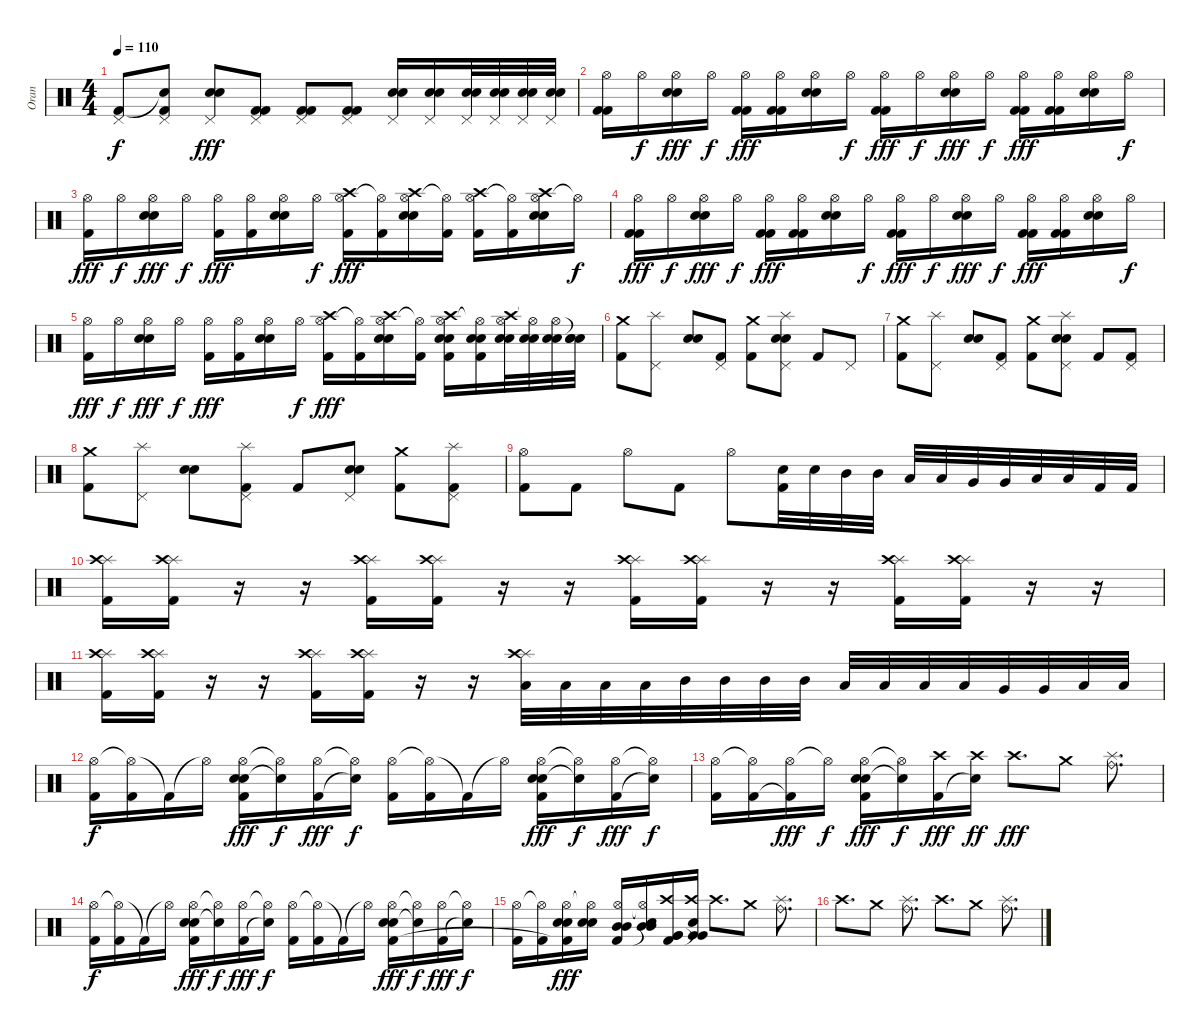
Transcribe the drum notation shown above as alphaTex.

\track ("Oran" "Oran") {instrument percussion}
\staff {score}
\articulation defaults
\ts (4 4)
\tempo 110
\clef neutral
\ks c
("Pedal Hi-Hat (hit)" "Kick (hit) 2").8{dy f} ("Pedal Hi-Hat (hit)" "Snare (hit)"{t} "Kick (hit) 2").8 ("Pedal Hi-Hat (hit)" "Snare (hit) 2" "Electric Snare (hit)").8{dy fff} ("Pedal Hi-Hat (hit)" "Kick (hit) 2" "Kick (hit) 2").8 ("Pedal Hi-Hat (hit)" "Kick (hit) 2" "Kick (hit) 2").8 ("Pedal Hi-Hat (hit)" "Kick (hit) 2" "Kick (hit) 2").8 ("Pedal Hi-Hat (hit)" "Electric Snare (hit)" "Snare (hit) 2").16 ("Pedal Hi-Hat (hit)" "Electric Snare (hit)" "Snare (hit) 2").16 ("Pedal Hi-Hat (hit)" "Snare (hit) 2" "Electric Snare (hit)").32 ("Pedal Hi-Hat (hit)" "Snare (hit) 2" "Electric Snare (hit)").32 ("Pedal Hi-Hat (hit)" "Snare (hit) 2" "Electric Snare (hit)").32 ("Pedal Hi-Hat (hit)" "Snare (hit) 2" "Electric Snare (hit)").32 |
("Hi-Hat (open)" "Kick (hit) 2" "Kick (hit) 2").16 "Hi-Hat (open)".16{dy f} ("Hi-Hat (open)" "Snare (hit) 2" "Electric Snare (hit)").16{dy fff} "Hi-Hat (open)".16{dy f} ("Hi-Hat (open)" "Kick (hit) 2" "Kick (hit) 2").16{dy fff} ("Hi-Hat (open)" "Kick (hit) 2" "Kick (hit) 2").16 ("Hi-Hat (open)" "Snare (hit) 2" "Electric Snare (hit)").16 "Hi-Hat (open)".16{dy f} ("Hi-Hat (open)" "Kick (hit) 2" "Kick (hit) 2").16{dy fff} "Hi-Hat (open)".16{dy f} ("Hi-Hat (open)" "Snare (hit) 2" "Electric Snare (hit)").16{dy fff} "Hi-Hat (open)".16{dy f} ("Hi-Hat (open)" "Kick (hit) 2" "Kick (hit) 2").16{dy fff} ("Hi-Hat (open)" "Kick (hit) 2" "Kick (hit) 2").16 ("Hi-Hat (open)" "Snare (hit) 2" "Electric Snare (hit)").16 "Hi-Hat (open)".16{dy f} |
("Hi-Hat (open)" "Kick (hit) 2").16{dy fff} "Hi-Hat (open)".16{dy f} ("Hi-Hat (open)" "Snare (hit) 2" "Electric Snare (hit)").16{dy fff} "Hi-Hat (open)".16{dy f} ("Hi-Hat (open)" "Kick (hit) 2").16{dy fff} ("Hi-Hat (open)" "Kick (hit) 2").16 ("Hi-Hat (open)" "Snare (hit) 2" "Electric Snare (hit)").16 "Hi-Hat (open)".16{dy f} ("Hi-Hat (open)" "Crash high (hit)" "Kick (hit) 2").16{dy fff} ("Hi-Hat (open)"{t} "Kick (hit) 2").16 ("Hi-Hat (open)" "Snare (hit) 2" "Electric Snare (hit)" "Crash high (hit)").16 ("Hi-Hat (open)"{t} "Kick (hit) 2").16 ("Hi-Hat (open)" "Crash high (hit)" "Kick (hit) 2").16 ("Hi-Hat (open)"{t} "Kick (hit) 2").16 ("Hi-Hat (open)" "Electric Snare (hit)" "Snare (hit) 2" "Crash high (hit)").16 "Hi-Hat (open)"{t}.16{dy f} |
("Hi-Hat (open)" "Kick (hit) 2" "Kick (hit) 2").16{dy fff} "Hi-Hat (open)".16{dy f} ("Hi-Hat (open)" "Snare (hit) 2" "Electric Snare (hit)").16{dy fff} "Hi-Hat (open)".16{dy f} ("Hi-Hat (open)" "Kick (hit) 2" "Kick (hit) 2").16{dy fff} ("Hi-Hat (open)" "Kick (hit) 2" "Kick (hit) 2").16 ("Hi-Hat (open)" "Snare (hit) 2" "Electric Snare (hit)").16 "Hi-Hat (open)".16{dy f} ("Hi-Hat (open)" "Kick (hit) 2" "Kick (hit) 2").16{dy fff} "Hi-Hat (open)".16{dy f} ("Hi-Hat (open)" "Snare (hit) 2" "Electric Snare (hit)").16{dy fff} "Hi-Hat (open)".16{dy f} ("Hi-Hat (open)" "Kick (hit) 2" "Kick (hit) 2").16{dy fff} ("Hi-Hat (open)" "Kick (hit) 2" "Kick (hit) 2").16 ("Hi-Hat (open)" "Snare (hit) 2" "Electric Snare (hit)").16 "Hi-Hat (open)".16{dy f} |
("Hi-Hat (open)" "Kick (hit) 2").16{dy fff} "Hi-Hat (open)".16{dy f} ("Hi-Hat (open)" "Snare (hit) 2" "Electric Snare (hit)").16{dy fff} "Hi-Hat (open)".16{dy f} ("Hi-Hat (open)" "Kick (hit) 2").16{dy fff} ("Hi-Hat (open)" "Kick (hit) 2").16 ("Hi-Hat (open)" "Snare (hit) 2" "Electric Snare (hit)").16 "Hi-Hat (open)".16{dy f} ("Hi-Hat (open)" "Crash high (hit)" "Kick (hit) 2").16{dy fff} ("Hi-Hat (open)"{t} "Kick (hit) 2").16 ("Hi-Hat (open)" "Snare (hit) 2" "Electric Snare (hit)" "Crash high (hit)").16 ("Hi-Hat (open)"{t} "Kick (hit) 2").16 ("Hi-Hat (open)" "Crash high (hit)" "Electric Snare (hit)" "Kick (hit) 2" "Snare (hit) 2").16 ("Hi-Hat (open)"{t} "Snare (hit) 2" "Electric Snare (hit)" "Kick (hit) 2").16 ("Hi-Hat (open)" "Electric Snare (hit)" "Snare (hit) 2" "Crash high (hit)").32 ("Hi-Hat (open)"{t} "Snare (hit) 2" "Electric Snare (hit)").32 ("Hi-Hat (open)" "Snare (hit) 2" "Electric Snare (hit)").32 ("Snare (hit)"{t} "Snare (hit) 2" "Electric Snare (hit)").32 |
("Crash medium (hit)" "Kick (hit) 2").8 ("Splash (hit)" "Pedal Hi-Hat (hit)").8 ("Snare (hit) 2" "Electric Snare (hit)").8 ("Pedal Hi-Hat (hit)" "Kick (hit) 2").8 ("Crash medium (hit)" "Kick (hit) 2").8 ("Splash (hit)" "Pedal Hi-Hat (hit)" "Snare (hit) 2" "Electric Snare (hit)").8 "Kick (hit) 2".8 "Pedal Hi-Hat (hit)".8 |
("Crash medium (hit)" "Kick (hit) 2").8 ("Splash (hit)" "Pedal Hi-Hat (hit)").8 ("Snare (hit) 2" "Electric Snare (hit)").8 ("Pedal Hi-Hat (hit)" "Kick (hit) 2").8 ("Crash medium (hit)" "Kick (hit) 2").8 ("Splash (hit)" "Pedal Hi-Hat (hit)" "Snare (hit) 2" "Electric Snare (hit)").8 "Kick (hit) 2".8 ("Pedal Hi-Hat (hit)" "Kick (hit) 2").8 |
("Crash medium (hit)" "Kick (hit) 2").8 ("Splash (hit)" "Pedal Hi-Hat (hit)").8 ("Snare (hit) 2" "Electric Snare (hit)").8 ("Splash (hit)" "Pedal Hi-Hat (hit)" "Kick (hit) 2").8 "Kick (hit) 2".8 ("Pedal Hi-Hat (hit)" "Snare (hit) 2" "Electric Snare (hit)").8 ("Crash medium (hit)" "Kick (hit) 2").8 ("Splash (hit)" "Pedal Hi-Hat (hit)" "Kick (hit) 2").8 |
("Hi-Hat (open)" "Kick (hit) 2").8 "Kick (hit) 2".8 "Hi-Hat (open)".8 "Kick (hit) 2".8 "Hi-Hat (open)".8 ("Electric Snare (hit)" "Kick (hit) 2").32 "Electric Snare (hit)".32 "Mid Tom (hit)".32 "Mid Tom (hit)".32 "Low Tom (hit)".32 "Low Tom (hit)".32 "Very Low Tom (hit)".32 "Very Low Tom (hit)".32 "Low Floor Tom (hit)".32 "Low Floor Tom (hit)".32 "Kick (hit) 2".32 "Kick (hit) 2".32 |
("Splash (hit)" "Crash high (hit)" "Kick (hit) 2").16 ("Splash (hit)" "Crash high (hit)" "Kick (hit) 2").16 r.16 r.16 ("Splash (hit)" "Crash high (hit)" "Kick (hit) 2").16 ("Splash (hit)" "Crash high (hit)" "Kick (hit) 2").16 r.16 r.16 ("Splash (hit)" "Crash high (hit)" "Kick (hit) 2").16 ("Splash (hit)" "Crash high (hit)" "Kick (hit) 2").16 r.16 r.16 ("Splash (hit)" "Crash high (hit)" "Kick (hit) 2").16 ("Splash (hit)" "Crash high (hit)" "Kick (hit) 2").16 r.16 r.16 |
("Splash (hit)" "Crash high (hit)" "Kick (hit) 2").16 ("Splash (hit)" "Crash high (hit)" "Kick (hit) 2").16 r.16 r.16 ("Splash (hit)" "Crash high (hit)" "Kick (hit) 2").16 ("Splash (hit)" "Crash high (hit)" "Kick (hit) 2").16 r.16 r.16 ("Splash (hit)" "Crash high (hit)" "Low Tom (hit)").32 "Low Tom (hit)".32 "Low Tom (hit)".32 "Low Tom (hit)".32 "Mid Tom (hit)".32 "Mid Tom (hit)".32 "Mid Tom (hit)".32 "Mid Tom (hit)".32 "Low Tom (hit)".32 "Low Tom (hit)".32 "Low Tom (hit)".32 "Low Tom (hit)".32 "Very Low Tom (hit)".32 "Very Low Tom (hit)".32 "Low Floor Tom (hit)".32 "Low Floor Tom (hit)".32 |
("Hi-Hat (open)" "Kick (hit) 2").16{dy f} ("Hi-Hat (open)"{t} "Kick (hit) 2").16 "Kick (hit) 2"{t}.16 "Hi-Hat (open)"{t}.16 ("Hi-Hat (open)" "Electric Snare (hit)" "Snare (hit) 2" "Kick (hit) 2").16{dy fff} ("Hi-Hat (open)"{t} "Snare (hit)"{t}).16{dy f} ("Hi-Hat (open)" "Kick (hit) 2").16{dy fff} ("Hi-Hat (open)"{t} "Snare (hit)"{t}).16{dy f} ("Hi-Hat (open)" "Kick (hit) 2").16 ("Hi-Hat (open)"{t} "Kick (hit) 2").16 "Kick (hit) 2"{t}.16 "Hi-Hat (open)"{t}.16 ("Hi-Hat (open)" "Electric Snare (hit)" "Electric Snare (hit)" "Kick (hit) 2").16{dy fff} ("Hi-Hat (open)"{t} "Snare (hit)"{t}).16{dy f} ("Hi-Hat (open)" "Kick (hit) 2").16{dy fff} ("Hi-Hat (open)"{t} "Snare (hit)"{t}).16{dy f} |
("Hi-Hat (open)" "Kick (hit) 2").16 ("Hi-Hat (open)"{t} "Kick (hit) 2").16 ("Hi-Hat (open)" "Kick (hit) 2"{t}).16{dy fff} "Hi-Hat (open)"{t}.16{dy f} ("Hi-Hat (open)" "Snare (hit) 2" "Electric Snare (hit)" "Kick (hit) 2").16{dy fff} ("Hi-Hat (open)"{t} "Snare (hit)"{t}).16{dy f} ("Crash high (hit)" "Kick (hit) 2").16{dy fff} ("Crash high (hit)" "Snare (hit)"{t}).16{dy ff} "Crash high (hit)".8{d dy fff} "Crash medium (hit)".8 ("Splash (hit)" "Ride (bell)").8{d} |
("Hi-Hat (open)" "Kick (hit) 2").16{dy f} ("Hi-Hat (open)"{t} "Kick (hit) 2").16 "Kick (hit) 2"{t}.16 "Hi-Hat (open)"{t}.16 ("Hi-Hat (open)" "Snare (hit) 2" "Electric Snare (hit)" "Kick (hit) 2").16{dy fff} ("Hi-Hat (open)"{t} "Snare (hit)"{t}).16{dy f} ("Hi-Hat (open)" "Kick (hit) 2").16{dy fff} ("Hi-Hat (open)"{t} "Snare (hit)"{t}).16{dy f} ("Hi-Hat (open)" "Kick (hit) 2").16 ("Hi-Hat (open)"{t} "Kick (hit) 2").16 "Kick (hit) 2"{t}.16 "Hi-Hat (open)"{t}.16 ("Hi-Hat (open)" "Snare (hit) 2" "Electric Snare (hit)" "Kick (hit) 2").16{dy fff} ("Hi-Hat (open)"{t} "Snare (hit)"{t}).16{dy f} ("Hi-Hat (open)" "Kick (hit) 2").16{dy fff} ("Hi-Hat (open)"{t} "Snare (hit)"{t}).16{dy f} |
("Hi-Hat (open)" "Kick (hit) 2").16 ("Hi-Hat (open)"{t} "Kick (hit) 2").16 ("Hi-Hat (open)" "Snare (hit) 2" "Electric Snare (hit)" "Kick (hit) 2"{t}).16{dy fff} ("Hi-Hat (open)"{t} "Snare (hit) 2" "Electric Snare (hit)").16 ("Hi-Hat (open)" "Mid Tom (hit)" "Mid Tom (hit)" "Kick (hit) 2").16 ("Hi-Hat (open)"{t} "Mid Tom (hit)" "Mid Tom (hit)" "Snare (hit)"{t}).16 ("Crash high (hit)" "Very Low Tom (hit)" "Very Low Tom (hit)" "Kick (hit) 2").16 ("Crash high (hit)" "Very Low Tom (hit)" "Very Low Tom (hit)" "Snare (hit)"{t}).16 "Crash high (hit)".8{d} "Crash medium (hit)".8 ("Splash (hit)" "Ride (bell)").8{d} |
"Crash high (hit)".8{d} "Crash medium (hit)".8 ("Splash (hit)" "Ride (bell)").8{d} "Crash high (hit)".8{d} "Crash medium (hit)".8 ("Splash (hit)" "Ride (bell)").8{d}
